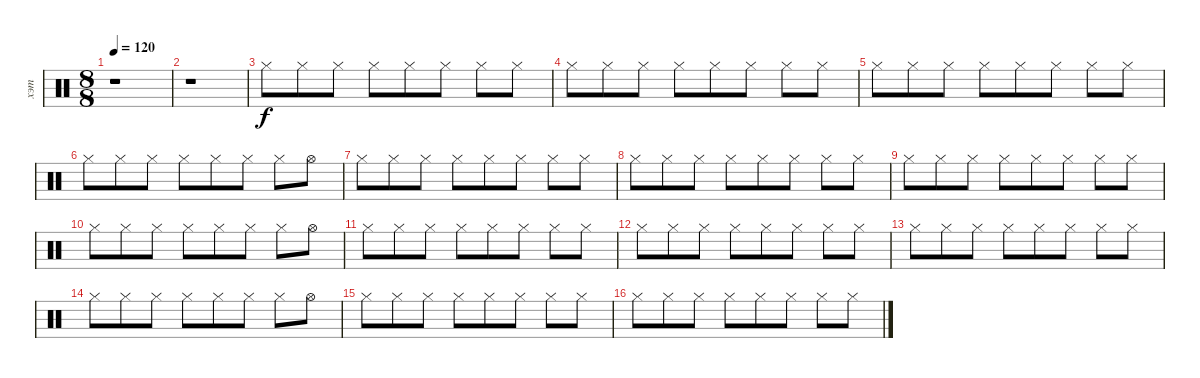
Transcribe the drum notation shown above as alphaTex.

\track ("хэт" "хэт") {instrument percussion}
\staff {score}
\articulation defaults
\ts (8 8)
\tempo 120
\clef neutral
\ks c
r.1{dy f} |
r.1 |
"Hi-Hat (closed)".8 "Hi-Hat (closed)".8 "Hi-Hat (closed)".8 "Hi-Hat (closed)".8 "Hi-Hat (closed)".8 "Hi-Hat (closed)".8 "Hi-Hat (closed)".8 "Hi-Hat (closed)".8 |
"Hi-Hat (closed)".8 "Hi-Hat (closed)".8 "Hi-Hat (closed)".8 "Hi-Hat (closed)".8 "Hi-Hat (closed)".8 "Hi-Hat (closed)".8 "Hi-Hat (closed)".8 "Hi-Hat (closed)".8 |
"Hi-Hat (closed)".8 "Hi-Hat (closed)".8 "Hi-Hat (closed)".8 "Hi-Hat (closed)".8 "Hi-Hat (closed)".8 "Hi-Hat (closed)".8 "Hi-Hat (closed)".8 "Hi-Hat (closed)".8 |
"Hi-Hat (closed)".8 "Hi-Hat (closed)".8 "Hi-Hat (closed)".8 "Hi-Hat (closed)".8 "Hi-Hat (closed)".8 "Hi-Hat (closed)".8 "Hi-Hat (closed)".8 "Hi-Hat (open)".8 |
"Hi-Hat (closed)".8 "Hi-Hat (closed)".8 "Hi-Hat (closed)".8 "Hi-Hat (closed)".8 "Hi-Hat (closed)".8 "Hi-Hat (closed)".8 "Hi-Hat (closed)".8 "Hi-Hat (closed)".8 |
"Hi-Hat (closed)".8 "Hi-Hat (closed)".8 "Hi-Hat (closed)".8 "Hi-Hat (closed)".8 "Hi-Hat (closed)".8 "Hi-Hat (closed)".8 "Hi-Hat (closed)".8 "Hi-Hat (closed)".8 |
"Hi-Hat (closed)".8 "Hi-Hat (closed)".8 "Hi-Hat (closed)".8 "Hi-Hat (closed)".8 "Hi-Hat (closed)".8 "Hi-Hat (closed)".8 "Hi-Hat (closed)".8 "Hi-Hat (closed)".8 |
"Hi-Hat (closed)".8 "Hi-Hat (closed)".8 "Hi-Hat (closed)".8 "Hi-Hat (closed)".8 "Hi-Hat (closed)".8 "Hi-Hat (closed)".8 "Hi-Hat (closed)".8 "Hi-Hat (open)".8 |
"Hi-Hat (closed)".8 "Hi-Hat (closed)".8 "Hi-Hat (closed)".8 "Hi-Hat (closed)".8 "Hi-Hat (closed)".8 "Hi-Hat (closed)".8 "Hi-Hat (closed)".8 "Hi-Hat (closed)".8 |
"Hi-Hat (closed)".8 "Hi-Hat (closed)".8 "Hi-Hat (closed)".8 "Hi-Hat (closed)".8 "Hi-Hat (closed)".8 "Hi-Hat (closed)".8 "Hi-Hat (closed)".8 "Hi-Hat (closed)".8 |
"Hi-Hat (closed)".8 "Hi-Hat (closed)".8 "Hi-Hat (closed)".8 "Hi-Hat (closed)".8 "Hi-Hat (closed)".8 "Hi-Hat (closed)".8 "Hi-Hat (closed)".8 "Hi-Hat (closed)".8 |
"Hi-Hat (closed)".8 "Hi-Hat (closed)".8 "Hi-Hat (closed)".8 "Hi-Hat (closed)".8 "Hi-Hat (closed)".8 "Hi-Hat (closed)".8 "Hi-Hat (closed)".8 "Hi-Hat (open)".8 |
"Hi-Hat (closed)".8 "Hi-Hat (closed)".8 "Hi-Hat (closed)".8 "Hi-Hat (closed)".8 "Hi-Hat (closed)".8 "Hi-Hat (closed)".8 "Hi-Hat (closed)".8 "Hi-Hat (closed)".8 |
"Hi-Hat (closed)".8 "Hi-Hat (closed)".8 "Hi-Hat (closed)".8 "Hi-Hat (closed)".8 "Hi-Hat (closed)".8 "Hi-Hat (closed)".8 "Hi-Hat (closed)".8 "Hi-Hat (closed)".8
